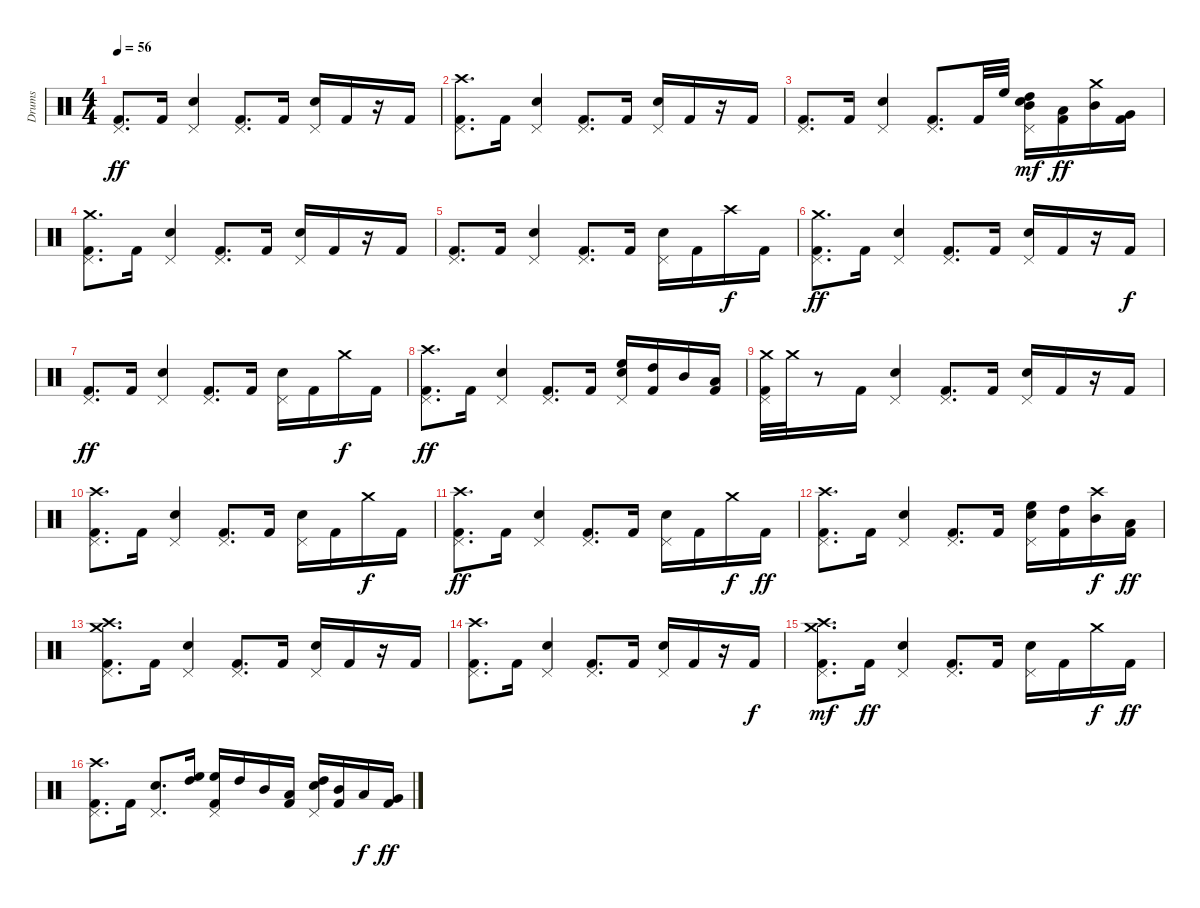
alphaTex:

\track ("Drums" "Drums") {instrument percussion}
\staff {score}
\articulation defaults
\ts (4 4)
\tempo 56
\clef neutral
\ks c
("Pedal Hi-Hat (hit)" "Kick (hit) 2").8{d dy ff} "Kick (hit) 2".16 ("Snare (hit) 2" "Pedal Hi-Hat (hit)").4 ("Kick (hit) 2" "Pedal Hi-Hat (hit)").8{d} "Kick (hit) 2".16 ("Snare (hit) 2" "Pedal Hi-Hat (hit)").16 "Kick (hit) 2".16 r.16 "Kick (hit) 2".16 |
("Crash high (hit)" "Pedal Hi-Hat (hit)" "Kick (hit) 2").8{d} "Kick (hit) 2".16 ("Snare (hit) 2" "Pedal Hi-Hat (hit)").4 ("Kick (hit) 2" "Pedal Hi-Hat (hit)").8{d} "Kick (hit) 2".16 ("Snare (hit) 2" "Pedal Hi-Hat (hit)").16 "Kick (hit) 2".16 r.16 "Kick (hit) 2".16 |
("Pedal Hi-Hat (hit)" "Kick (hit) 2").8{d} "Kick (hit) 2".16 ("Snare (hit) 2" "Pedal Hi-Hat (hit)").4 ("Kick (hit) 2" "Pedal Hi-Hat (hit)").8{d} "Kick (hit) 2".32 "High Floor Tom (hit)".32 ("High Tom (hit)" "Snare (hit) 2" "Pedal Hi-Hat (hit)" "Mid Tom (hit)").16{dy mf} ("Low Tom (hit)" "Kick (hit) 2").16{dy ff} ("Crash medium (hit)" "Mid Tom (hit)").16 ("Kick (hit) 2" "Very Low Tom (hit)").16 |
("Crash medium (hit)" "Pedal Hi-Hat (hit)" "Kick (hit) 2").8{d} "Kick (hit) 2".16 ("Snare (hit) 2" "Pedal Hi-Hat (hit)").4 ("Kick (hit) 2" "Pedal Hi-Hat (hit)").8{d} "Kick (hit) 2".16 ("Snare (hit) 2" "Pedal Hi-Hat (hit)").16 "Kick (hit) 2".16 r.16 "Kick (hit) 2".16 |
("Pedal Hi-Hat (hit)" "Kick (hit) 2").8{d} "Kick (hit) 2".16 ("Snare (hit) 2" "Pedal Hi-Hat (hit)").4 ("Kick (hit) 2" "Pedal Hi-Hat (hit)").8{d} "Kick (hit) 2".16 ("Snare (hit) 2" "Pedal Hi-Hat (hit)").16 "Kick (hit) 2".16 "Crash high (hit)".16{dy f} "Kick (hit) 2".16 |
("Crash medium (hit)" "Pedal Hi-Hat (hit)" "Kick (hit) 2").8{d dy ff} "Kick (hit) 2".16 ("Snare (hit) 2" "Pedal Hi-Hat (hit)").4 ("Kick (hit) 2" "Pedal Hi-Hat (hit)").8{d} "Kick (hit) 2".16 ("Snare (hit) 2" "Pedal Hi-Hat (hit)").16 "Kick (hit) 2".16 r.16 "Kick (hit) 2".16{dy f} |
("Pedal Hi-Hat (hit)" "Kick (hit) 2").8{d dy ff} "Kick (hit) 2".16 ("Snare (hit) 2" "Pedal Hi-Hat (hit)").4 ("Kick (hit) 2" "Pedal Hi-Hat (hit)").8{d} "Kick (hit) 2".16 ("Snare (hit) 2" "Pedal Hi-Hat (hit)").16 "Kick (hit) 2".16 "Crash medium (hit)".16{dy f} "Kick (hit) 2".16 |
("Crash high (hit)" "Pedal Hi-Hat (hit)" "Kick (hit) 2").8{d dy ff} "Kick (hit) 2".16 ("Snare (hit) 2" "Pedal Hi-Hat (hit)").4 ("Kick (hit) 2" "Pedal Hi-Hat (hit)").8{d} "Kick (hit) 2".16 ("Snare (hit) 2" "High Floor Tom (hit)" "Pedal Hi-Hat (hit)").16 ("Kick (hit) 2" "High Tom (hit)").16 "Mid Tom (hit)".16 ("Kick (hit) 2" "Low Tom (hit)").16 |
("Crash medium (hit)" "Pedal Hi-Hat (hit)" "Kick (hit) 2").32 "Crash medium (hit)".32 r.8 "Kick (hit) 2".16 ("Snare (hit) 2" "Pedal Hi-Hat (hit)").4 ("Kick (hit) 2" "Pedal Hi-Hat (hit)").8{d} "Kick (hit) 2".16 ("Snare (hit) 2" "Pedal Hi-Hat (hit)").16 "Kick (hit) 2".16 r.16 "Kick (hit) 2".16 |
("Crash high (hit)" "Pedal Hi-Hat (hit)" "Kick (hit) 2").8{d} "Kick (hit) 2".16 ("Snare (hit) 2" "Pedal Hi-Hat (hit)").4 ("Kick (hit) 2" "Pedal Hi-Hat (hit)").8{d} "Kick (hit) 2".16 ("Snare (hit) 2" "Pedal Hi-Hat (hit)").16 "Kick (hit) 2".16 "Crash medium (hit)".16{dy f} "Kick (hit) 2".16 |
("Crash high (hit)" "Pedal Hi-Hat (hit)" "Kick (hit) 2").8{d dy ff} "Kick (hit) 2".16 ("Snare (hit) 2" "Pedal Hi-Hat (hit)").4 ("Kick (hit) 2" "Pedal Hi-Hat (hit)").8{d} "Kick (hit) 2".16 ("Snare (hit) 2" "Pedal Hi-Hat (hit)").16 "Kick (hit) 2".16 "Crash medium (hit)".16{dy f} "Kick (hit) 2".16{dy ff} |
("Crash high (hit)" "Pedal Hi-Hat (hit)" "Kick (hit) 2").8{d} "Kick (hit) 2".16 ("Snare (hit) 2" "Pedal Hi-Hat (hit)").4 ("Kick (hit) 2" "Pedal Hi-Hat (hit)").8{d} "Kick (hit) 2".16 ("Snare (hit) 2" "Pedal Hi-Hat (hit)" "High Floor Tom (hit)").16 ("Kick (hit) 2" "High Tom (hit)").16 ("Crash high (hit)" "Mid Tom (hit)").16{dy f} ("Kick (hit) 2" "Low Tom (hit)").16{dy ff} |
("Crash medium (hit)" "Pedal Hi-Hat (hit)" "Kick (hit) 2" "Crash high (hit)").8{d} "Kick (hit) 2".16 ("Snare (hit) 2" "Pedal Hi-Hat (hit)").4 ("Kick (hit) 2" "Pedal Hi-Hat (hit)").8{d} "Kick (hit) 2".16 ("Snare (hit) 2" "Pedal Hi-Hat (hit)").16 "Kick (hit) 2".16 r.16 "Kick (hit) 2".16 |
("Crash high (hit)" "Pedal Hi-Hat (hit)" "Kick (hit) 2").8{d} "Kick (hit) 2".16 ("Snare (hit) 2" "Pedal Hi-Hat (hit)").4 ("Kick (hit) 2" "Pedal Hi-Hat (hit)").8{d} "Kick (hit) 2".16 ("Snare (hit) 2" "Pedal Hi-Hat (hit)").16 "Kick (hit) 2".16 r.16 "Kick (hit) 2".16{dy f} |
("Crash medium (hit)" "Pedal Hi-Hat (hit)" "Kick (hit) 2" "Crash high (hit)").8{d dy mf} "Kick (hit) 2".16{dy ff} ("Snare (hit) 2" "Pedal Hi-Hat (hit)").4 ("Kick (hit) 2" "Pedal Hi-Hat (hit)").8{d} "Kick (hit) 2".16 ("Snare (hit) 2" "Pedal Hi-Hat (hit)").16 "Kick (hit) 2".16 "Crash medium (hit)".16{dy f} "Kick (hit) 2".16{dy ff} |
("Crash high (hit)" "Pedal Hi-Hat (hit)" "Kick (hit) 2").8{d} "Kick (hit) 2".16 ("Snare (hit) 2" "Pedal Hi-Hat (hit)").8{d} ("High Floor Tom (hit)" "High Tom (hit)").16 ("High Floor Tom (hit)" "Kick (hit) 2" "Pedal Hi-Hat (hit)").16 "High Tom (hit)".16 "Mid Tom (hit)".16 ("Low Tom (hit)" "Kick (hit) 2").16 ("Snare (hit) 2" "High Tom (hit)" "Pedal Hi-Hat (hit)").16 ("Mid Tom (hit)" "Kick (hit) 2").16 "Low Tom (hit)".16{dy f} ("Kick (hit) 2" "Very Low Tom (hit)").16{dy ff}
